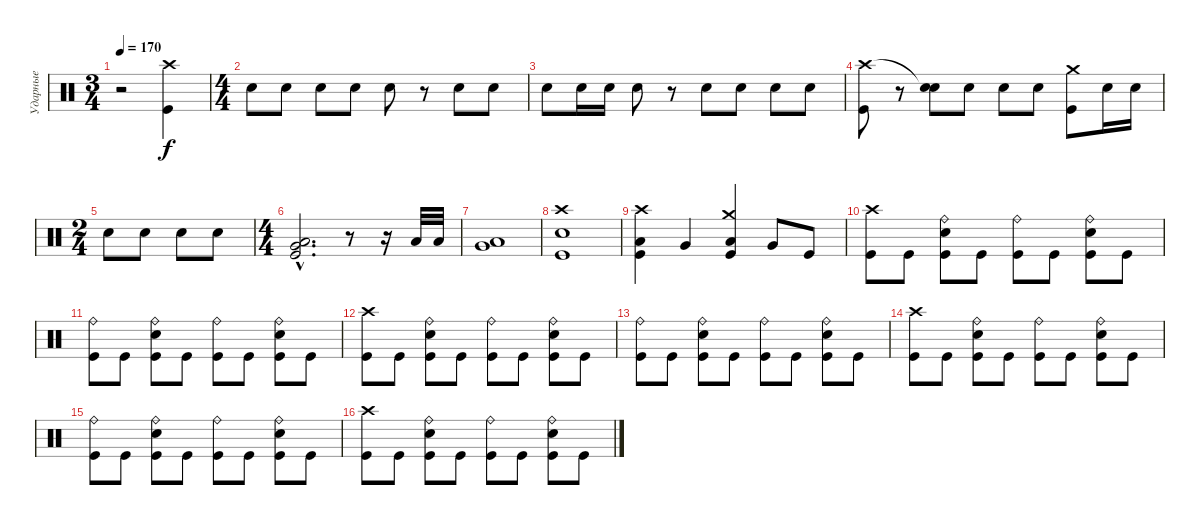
\track ("Ударные" "Ударные") {instrument percussion}
\staff {score}
\articulation defaults
\ts (3 4)
\tempo 170
\clef neutral
\ks c
r.2{dy f} ("Crash high (hit)" "Kick (hit)").4 |
\ts (4 4)
"Electric Snare (hit)".8 "Electric Snare (hit)".8 "Electric Snare (hit)".8 "Electric Snare (hit)".8 "Electric Snare (hit)".8 r.8 "Electric Snare (hit)".8 "Electric Snare (hit)".8 |
"Electric Snare (hit)".8 "Electric Snare (hit)".16 "Electric Snare (hit)".16 "Electric Snare (hit)".8 r.8 "Electric Snare (hit)".8 "Electric Snare (hit)".8 "Electric Snare (hit)".8 "Electric Snare (hit)".8 |
("Crash high (hit)" "Kick (hit)").8 r.8 ("Snare (hit)"{t} "Electric Snare (hit)").8 "Electric Snare (hit)".8 "Electric Snare (hit)".8 "Electric Snare (hit)".8 ("Crash medium (hit)" "Kick (hit)").8 "Electric Snare (hit)".16 "Electric Snare (hit)".16 |
\ts (2 4)
"Electric Snare (hit)".8 "Electric Snare (hit)".8 "Electric Snare (hit)".8 "Electric Snare (hit)".8 |
\ts (4 4)
("Low Tom (hit)"{hac} "Very Low Tom (hit)"{hac} "Kick (hit)"{hac}).2{d} r.8 r.16 "Low Tom (hit)".32 "Low Tom (hit)".32 |
("Low Tom (hit)" "Very Low Tom (hit)").1 |
("Crash high (hit)" "Electric Snare (hit)" "Kick (hit)").1 |
("Crash high (hit)" "Low Tom (hit)" "Kick (hit)").4 "Very Low Tom (hit)".4 ("Crash medium (hit)" "Low Tom (hit)" "Kick (hit)").4 "Very Low Tom (hit)".8 "Kick (hit)".8 |
("Crash high (hit)" "Kick (hit)").8 "Kick (hit)".8 ("Ride (bell)" "Electric Snare (hit)" "Kick (hit)").8 "Kick (hit)".8 ("Ride (bell)" "Kick (hit)").8 "Kick (hit)".8 ("Ride (bell)" "Electric Snare (hit)" "Kick (hit)").8 "Kick (hit)".8 |
("Ride (bell)" "Kick (hit)").8 "Kick (hit)".8 ("Ride (bell)" "Electric Snare (hit)" "Kick (hit)").8 "Kick (hit)".8 ("Ride (bell)" "Kick (hit)").8 "Kick (hit)".8 ("Ride (bell)" "Electric Snare (hit)" "Kick (hit)").8 "Kick (hit)".8 |
("Crash high (hit)" "Kick (hit)").8 "Kick (hit)".8 ("Ride (bell)" "Electric Snare (hit)" "Kick (hit)").8 "Kick (hit)".8 ("Ride (bell)" "Kick (hit)").8 "Kick (hit)".8 ("Ride (bell)" "Electric Snare (hit)" "Kick (hit)").8 "Kick (hit)".8 |
("Ride (bell)" "Kick (hit)").8 "Kick (hit)".8 ("Ride (bell)" "Electric Snare (hit)" "Kick (hit)").8 "Kick (hit)".8 ("Ride (bell)" "Kick (hit)").8 "Kick (hit)".8 ("Ride (bell)" "Electric Snare (hit)" "Kick (hit)").8 "Kick (hit)".8 |
("Crash high (hit)" "Kick (hit)").8 "Kick (hit)".8 ("Ride (bell)" "Electric Snare (hit)" "Kick (hit)").8 "Kick (hit)".8 ("Ride (bell)" "Kick (hit)").8 "Kick (hit)".8 ("Ride (bell)" "Electric Snare (hit)" "Kick (hit)").8 "Kick (hit)".8 |
("Ride (bell)" "Kick (hit)").8 "Kick (hit)".8 ("Ride (bell)" "Electric Snare (hit)" "Kick (hit)").8 "Kick (hit)".8 ("Ride (bell)" "Kick (hit)").8 "Kick (hit)".8 ("Ride (bell)" "Electric Snare (hit)" "Kick (hit)").8 "Kick (hit)".8 |
("Crash high (hit)" "Kick (hit)").8 "Kick (hit)".8 ("Ride (bell)" "Electric Snare (hit)" "Kick (hit)").8 "Kick (hit)".8 ("Ride (bell)" "Kick (hit)").8 "Kick (hit)".8 ("Ride (bell)" "Electric Snare (hit)" "Kick (hit)").8 "Kick (hit)".8
